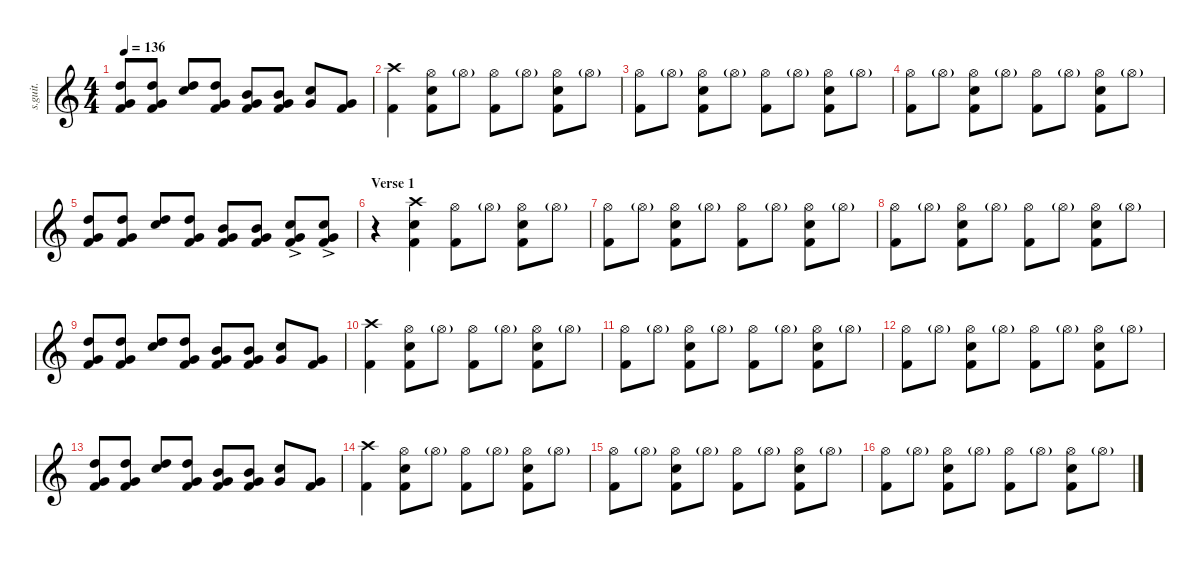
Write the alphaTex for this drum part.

\defaultSystemsLayout 4
\hideDynamics
\bracketExtendMode nobrackets
\track ("Joey Jordison" "s.guit.") {instrument percussion}
\staff {score}
\articulation defaults
\ts (4 4)
\tempo 136
\clef g2
\ks c
("Kick (hit) 2" "High Tom (hit)" "Very Low Tom (hit)").8{lyrics (0 "") lyrics (1 "") lyrics (2 "") lyrics (3 "") lyrics (4 "") dy fff} ("Kick (hit) 2" "High Tom (hit)" "Very Low Tom (hit)").8{lyrics (0 "") lyrics (1 "") lyrics (2 "") lyrics (3 "") lyrics (4 "")} ("Snare (hit) 2" "High Tom (hit)").8{lyrics (0 "") lyrics (1 "") lyrics (2 "") lyrics (3 "") lyrics (4 "")} ("Kick (hit) 2" "High Tom (hit)" "Very Low Tom (hit)").8{lyrics (0 "") lyrics (1 "") lyrics (2 "") lyrics (3 "") lyrics (4 "")} ("Kick (hit) 2" "Mid Tom (hit)" "Very Low Tom (hit)").8{lyrics (0 "") lyrics (1 "") lyrics (2 "") lyrics (3 "") lyrics (4 "")} ("Kick (hit) 2" "Mid Tom (hit)" "Very Low Tom (hit)").8{lyrics (0 "") lyrics (1 "") lyrics (2 "") lyrics (3 "") lyrics (4 "")} ("Snare (hit) 2" "Very Low Tom (hit)").8{lyrics (0 "") lyrics (1 "") lyrics (2 "") lyrics (3 "") lyrics (4 "")} ("Kick (hit) 2" "Very Low Tom (hit)").8{lyrics (0 "") lyrics (1 "") lyrics (2 "") lyrics (3 "") lyrics (4 "")} |
("Crash high (hit)" "Kick (hit) 2").4{lyrics (0 "") lyrics (1 "") lyrics (2 "") lyrics (3 "") lyrics (4 "")} ("Hi-Hat (open)" "Kick (hit) 2" "Snare (hit) 2").8{lyrics (0 "") lyrics (1 "") lyrics (2 "") lyrics (3 "") lyrics (4 "")} "Hi-Hat (open)"{g}.8{lyrics (0 "") lyrics (1 "") lyrics (2 "") lyrics (3 "") lyrics (4 "")} ("Hi-Hat (open)" "Kick (hit) 2").8{lyrics (0 "") lyrics (1 "") lyrics (2 "") lyrics (3 "") lyrics (4 "")} "Hi-Hat (open)"{g}.8{lyrics (0 "") lyrics (1 "") lyrics (2 "") lyrics (3 "") lyrics (4 "")} ("Hi-Hat (open)" "Kick (hit) 2" "Snare (hit) 2").8{lyrics (0 "") lyrics (1 "") lyrics (2 "") lyrics (3 "") lyrics (4 "")} "Hi-Hat (open)"{g}.8{lyrics (0 "") lyrics (1 "") lyrics (2 "") lyrics (3 "") lyrics (4 "")} |
("Hi-Hat (open)" "Kick (hit) 2").8{lyrics (0 "") lyrics (1 "") lyrics (2 "") lyrics (3 "") lyrics (4 "")} "Hi-Hat (open)"{g}.8{lyrics (0 "") lyrics (1 "") lyrics (2 "") lyrics (3 "") lyrics (4 "")} ("Hi-Hat (open)" "Kick (hit) 2" "Snare (hit) 2").8{lyrics (0 "") lyrics (1 "") lyrics (2 "") lyrics (3 "") lyrics (4 "")} "Hi-Hat (open)"{g}.8{lyrics (0 "") lyrics (1 "") lyrics (2 "") lyrics (3 "") lyrics (4 "")} ("Hi-Hat (open)" "Kick (hit) 2").8{lyrics (0 "") lyrics (1 "") lyrics (2 "") lyrics (3 "") lyrics (4 "")} "Hi-Hat (open)"{g}.8{lyrics (0 "") lyrics (1 "") lyrics (2 "") lyrics (3 "") lyrics (4 "")} ("Hi-Hat (open)" "Kick (hit) 2" "Snare (hit) 2").8{lyrics (0 "") lyrics (1 "") lyrics (2 "") lyrics (3 "") lyrics (4 "")} "Hi-Hat (open)"{g}.8{lyrics (0 "") lyrics (1 "") lyrics (2 "") lyrics (3 "") lyrics (4 "")} |
("Hi-Hat (open)" "Kick (hit) 2").8{lyrics (0 "") lyrics (1 "") lyrics (2 "") lyrics (3 "") lyrics (4 "")} "Hi-Hat (open)"{g}.8{lyrics (0 "") lyrics (1 "") lyrics (2 "") lyrics (3 "") lyrics (4 "")} ("Hi-Hat (open)" "Kick (hit) 2" "Snare (hit) 2").8{lyrics (0 "") lyrics (1 "") lyrics (2 "") lyrics (3 "") lyrics (4 "")} "Hi-Hat (open)"{g}.8{lyrics (0 "") lyrics (1 "") lyrics (2 "") lyrics (3 "") lyrics (4 "")} ("Hi-Hat (open)" "Kick (hit) 2").8{lyrics (0 "") lyrics (1 "") lyrics (2 "") lyrics (3 "") lyrics (4 "")} "Hi-Hat (open)"{g}.8{lyrics (0 "") lyrics (1 "") lyrics (2 "") lyrics (3 "") lyrics (4 "")} ("Hi-Hat (open)" "Kick (hit) 2" "Snare (hit) 2").8{lyrics (0 "") lyrics (1 "") lyrics (2 "") lyrics (3 "") lyrics (4 "")} "Hi-Hat (open)"{g}.8{lyrics (0 "") lyrics (1 "") lyrics (2 "") lyrics (3 "") lyrics (4 "")} |
("Kick (hit) 2" "High Tom (hit)" "Very Low Tom (hit)").8{lyrics (0 "") lyrics (1 "") lyrics (2 "") lyrics (3 "") lyrics (4 "")} ("Kick (hit) 2" "High Tom (hit)" "Very Low Tom (hit)").8{lyrics (0 "") lyrics (1 "") lyrics (2 "") lyrics (3 "") lyrics (4 "")} ("Snare (hit) 2" "High Tom (hit)").8{lyrics (0 "") lyrics (1 "") lyrics (2 "") lyrics (3 "") lyrics (4 "")} ("Kick (hit) 2" "High Tom (hit)" "Very Low Tom (hit)").8{lyrics (0 "") lyrics (1 "") lyrics (2 "") lyrics (3 "") lyrics (4 "")} ("Kick (hit) 2" "Mid Tom (hit)" "Very Low Tom (hit)").8{lyrics (0 "") lyrics (1 "") lyrics (2 "") lyrics (3 "") lyrics (4 "")} ("Kick (hit) 2" "Mid Tom (hit)" "Very Low Tom (hit)").8{lyrics (0 "") lyrics (1 "") lyrics (2 "") lyrics (3 "") lyrics (4 "")} ("Snare (hit) 2"{ac} "Very Low Tom (hit)"{ac} "Kick (hit) 2"{ac}).8{lyrics (0 "") lyrics (1 "") lyrics (2 "") lyrics (3 "") lyrics (4 "")} ("Kick (hit) 2"{ac} "Very Low Tom (hit)"{ac} "Snare (hit) 2"{ac}).8{lyrics (0 "") lyrics (1 "") lyrics (2 "") lyrics (3 "") lyrics (4 "")} |
\section ("" "Verse 1")
r.4 ("Snare (hit) 2" "Crash high (hit)" "Kick (hit) 2").4{lyrics (0 "") lyrics (1 "") lyrics (2 "") lyrics (3 "") lyrics (4 "")} ("Hi-Hat (open)" "Kick (hit) 2").8{lyrics (0 "") lyrics (1 "") lyrics (2 "") lyrics (3 "") lyrics (4 "")} "Hi-Hat (open)"{g}.8{lyrics (0 "") lyrics (1 "") lyrics (2 "") lyrics (3 "") lyrics (4 "")} ("Hi-Hat (open)" "Kick (hit) 2" "Snare (hit) 2").8{lyrics (0 "") lyrics (1 "") lyrics (2 "") lyrics (3 "") lyrics (4 "")} "Hi-Hat (open)"{g}.8{lyrics (0 "") lyrics (1 "") lyrics (2 "") lyrics (3 "") lyrics (4 "")} |
("Hi-Hat (open)" "Kick (hit) 2").8{lyrics (0 "") lyrics (1 "") lyrics (2 "") lyrics (3 "") lyrics (4 "")} "Hi-Hat (open)"{g}.8{lyrics (0 "") lyrics (1 "") lyrics (2 "") lyrics (3 "") lyrics (4 "")} ("Hi-Hat (open)" "Kick (hit) 2" "Snare (hit) 2").8{lyrics (0 "") lyrics (1 "") lyrics (2 "") lyrics (3 "") lyrics (4 "")} "Hi-Hat (open)"{g}.8{lyrics (0 "") lyrics (1 "") lyrics (2 "") lyrics (3 "") lyrics (4 "")} ("Hi-Hat (open)" "Kick (hit) 2").8{lyrics (0 "") lyrics (1 "") lyrics (2 "") lyrics (3 "") lyrics (4 "")} "Hi-Hat (open)"{g}.8{lyrics (0 "") lyrics (1 "") lyrics (2 "") lyrics (3 "") lyrics (4 "")} ("Hi-Hat (open)" "Kick (hit) 2" "Snare (hit) 2").8{lyrics (0 "") lyrics (1 "") lyrics (2 "") lyrics (3 "") lyrics (4 "")} "Hi-Hat (open)"{g}.8{lyrics (0 "") lyrics (1 "") lyrics (2 "") lyrics (3 "") lyrics (4 "")} |
("Hi-Hat (open)" "Kick (hit) 2").8{lyrics (0 "") lyrics (1 "") lyrics (2 "") lyrics (3 "") lyrics (4 "")} "Hi-Hat (open)"{g}.8{lyrics (0 "") lyrics (1 "") lyrics (2 "") lyrics (3 "") lyrics (4 "")} ("Hi-Hat (open)" "Kick (hit) 2" "Snare (hit) 2").8{lyrics (0 "") lyrics (1 "") lyrics (2 "") lyrics (3 "") lyrics (4 "")} "Hi-Hat (open)"{g}.8{lyrics (0 "") lyrics (1 "") lyrics (2 "") lyrics (3 "") lyrics (4 "")} ("Hi-Hat (open)" "Kick (hit) 2").8{lyrics (0 "") lyrics (1 "") lyrics (2 "") lyrics (3 "") lyrics (4 "")} "Hi-Hat (open)"{g}.8{lyrics (0 "") lyrics (1 "") lyrics (2 "") lyrics (3 "") lyrics (4 "")} ("Hi-Hat (open)" "Kick (hit) 2" "Snare (hit) 2").8{lyrics (0 "") lyrics (1 "") lyrics (2 "") lyrics (3 "") lyrics (4 "")} "Hi-Hat (open)"{g}.8{lyrics (0 "") lyrics (1 "") lyrics (2 "") lyrics (3 "") lyrics (4 "")} |
("Kick (hit) 2" "High Tom (hit)" "Very Low Tom (hit)").8{lyrics (0 "") lyrics (1 "") lyrics (2 "") lyrics (3 "") lyrics (4 "")} ("Kick (hit) 2" "High Tom (hit)" "Very Low Tom (hit)").8{lyrics (0 "") lyrics (1 "") lyrics (2 "") lyrics (3 "") lyrics (4 "")} ("Snare (hit) 2" "High Tom (hit)").8{lyrics (0 "") lyrics (1 "") lyrics (2 "") lyrics (3 "") lyrics (4 "")} ("Kick (hit) 2" "High Tom (hit)" "Very Low Tom (hit)").8{lyrics (0 "") lyrics (1 "") lyrics (2 "") lyrics (3 "") lyrics (4 "")} ("Kick (hit) 2" "Mid Tom (hit)" "Very Low Tom (hit)").8{lyrics (0 "") lyrics (1 "") lyrics (2 "") lyrics (3 "") lyrics (4 "")} ("Kick (hit) 2" "Mid Tom (hit)" "Very Low Tom (hit)").8{lyrics (0 "") lyrics (1 "") lyrics (2 "") lyrics (3 "") lyrics (4 "")} ("Snare (hit) 2" "Very Low Tom (hit)").8{lyrics (0 "") lyrics (1 "") lyrics (2 "") lyrics (3 "") lyrics (4 "")} ("Kick (hit) 2" "Very Low Tom (hit)").8{lyrics (0 "") lyrics (1 "") lyrics (2 "") lyrics (3 "") lyrics (4 "")} |
("Crash high (hit)" "Kick (hit) 2").4{lyrics (0 "") lyrics (1 "") lyrics (2 "") lyrics (3 "") lyrics (4 "")} ("Hi-Hat (open)" "Kick (hit) 2" "Snare (hit) 2").8{lyrics (0 "") lyrics (1 "") lyrics (2 "") lyrics (3 "") lyrics (4 "")} "Hi-Hat (open)"{g}.8{lyrics (0 "") lyrics (1 "") lyrics (2 "") lyrics (3 "") lyrics (4 "")} ("Hi-Hat (open)" "Kick (hit) 2").8{lyrics (0 "") lyrics (1 "") lyrics (2 "") lyrics (3 "") lyrics (4 "")} "Hi-Hat (open)"{g}.8{lyrics (0 "") lyrics (1 "") lyrics (2 "") lyrics (3 "") lyrics (4 "")} ("Hi-Hat (open)" "Kick (hit) 2" "Snare (hit) 2").8{lyrics (0 "") lyrics (1 "") lyrics (2 "") lyrics (3 "") lyrics (4 "")} "Hi-Hat (open)"{g}.8{lyrics (0 "") lyrics (1 "") lyrics (2 "") lyrics (3 "") lyrics (4 "")} |
("Hi-Hat (open)" "Kick (hit) 2").8{lyrics (0 "") lyrics (1 "") lyrics (2 "") lyrics (3 "") lyrics (4 "")} "Hi-Hat (open)"{g}.8{lyrics (0 "") lyrics (1 "") lyrics (2 "") lyrics (3 "") lyrics (4 "")} ("Hi-Hat (open)" "Kick (hit) 2" "Snare (hit) 2").8{lyrics (0 "") lyrics (1 "") lyrics (2 "") lyrics (3 "") lyrics (4 "")} "Hi-Hat (open)"{g}.8{lyrics (0 "") lyrics (1 "") lyrics (2 "") lyrics (3 "") lyrics (4 "")} ("Hi-Hat (open)" "Kick (hit) 2").8{lyrics (0 "") lyrics (1 "") lyrics (2 "") lyrics (3 "") lyrics (4 "")} "Hi-Hat (open)"{g}.8{lyrics (0 "") lyrics (1 "") lyrics (2 "") lyrics (3 "") lyrics (4 "")} ("Hi-Hat (open)" "Kick (hit) 2" "Snare (hit) 2").8{lyrics (0 "") lyrics (1 "") lyrics (2 "") lyrics (3 "") lyrics (4 "")} "Hi-Hat (open)"{g}.8{lyrics (0 "") lyrics (1 "") lyrics (2 "") lyrics (3 "") lyrics (4 "")} |
("Hi-Hat (open)" "Kick (hit) 2").8{lyrics (0 "") lyrics (1 "") lyrics (2 "") lyrics (3 "") lyrics (4 "")} "Hi-Hat (open)"{g}.8{lyrics (0 "") lyrics (1 "") lyrics (2 "") lyrics (3 "") lyrics (4 "")} ("Hi-Hat (open)" "Kick (hit) 2" "Snare (hit) 2").8{lyrics (0 "") lyrics (1 "") lyrics (2 "") lyrics (3 "") lyrics (4 "")} "Hi-Hat (open)"{g}.8{lyrics (0 "") lyrics (1 "") lyrics (2 "") lyrics (3 "") lyrics (4 "")} ("Hi-Hat (open)" "Kick (hit) 2").8{lyrics (0 "") lyrics (1 "") lyrics (2 "") lyrics (3 "") lyrics (4 "")} "Hi-Hat (open)"{g}.8{lyrics (0 "") lyrics (1 "") lyrics (2 "") lyrics (3 "") lyrics (4 "")} ("Hi-Hat (open)" "Kick (hit) 2" "Snare (hit) 2").8{lyrics (0 "") lyrics (1 "") lyrics (2 "") lyrics (3 "") lyrics (4 "")} "Hi-Hat (open)"{g}.8{lyrics (0 "") lyrics (1 "") lyrics (2 "") lyrics (3 "") lyrics (4 "")} |
("Kick (hit) 2" "High Tom (hit)" "Very Low Tom (hit)").8{lyrics (0 "") lyrics (1 "") lyrics (2 "") lyrics (3 "") lyrics (4 "")} ("Kick (hit) 2" "High Tom (hit)" "Very Low Tom (hit)").8{lyrics (0 "") lyrics (1 "") lyrics (2 "") lyrics (3 "") lyrics (4 "")} ("Snare (hit) 2" "High Tom (hit)").8{lyrics (0 "") lyrics (1 "") lyrics (2 "") lyrics (3 "") lyrics (4 "")} ("Kick (hit) 2" "High Tom (hit)" "Very Low Tom (hit)").8{lyrics (0 "") lyrics (1 "") lyrics (2 "") lyrics (3 "") lyrics (4 "")} ("Kick (hit) 2" "Mid Tom (hit)" "Very Low Tom (hit)").8{lyrics (0 "") lyrics (1 "") lyrics (2 "") lyrics (3 "") lyrics (4 "")} ("Kick (hit) 2" "Mid Tom (hit)" "Very Low Tom (hit)").8{lyrics (0 "") lyrics (1 "") lyrics (2 "") lyrics (3 "") lyrics (4 "")} ("Snare (hit) 2" "Very Low Tom (hit)").8{lyrics (0 "") lyrics (1 "") lyrics (2 "") lyrics (3 "") lyrics (4 "")} ("Kick (hit) 2" "Very Low Tom (hit)").8{lyrics (0 "") lyrics (1 "") lyrics (2 "") lyrics (3 "") lyrics (4 "")} |
("Crash high (hit)" "Kick (hit) 2").4{lyrics (0 "") lyrics (1 "") lyrics (2 "") lyrics (3 "") lyrics (4 "")} ("Hi-Hat (open)" "Kick (hit) 2" "Snare (hit) 2").8{lyrics (0 "") lyrics (1 "") lyrics (2 "") lyrics (3 "") lyrics (4 "")} "Hi-Hat (open)"{g}.8{lyrics (0 "") lyrics (1 "") lyrics (2 "") lyrics (3 "") lyrics (4 "")} ("Hi-Hat (open)" "Kick (hit) 2").8{lyrics (0 "") lyrics (1 "") lyrics (2 "") lyrics (3 "") lyrics (4 "")} "Hi-Hat (open)"{g}.8{lyrics (0 "") lyrics (1 "") lyrics (2 "") lyrics (3 "") lyrics (4 "")} ("Hi-Hat (open)" "Kick (hit) 2" "Snare (hit) 2").8{lyrics (0 "") lyrics (1 "") lyrics (2 "") lyrics (3 "") lyrics (4 "")} "Hi-Hat (open)"{g}.8{lyrics (0 "") lyrics (1 "") lyrics (2 "") lyrics (3 "") lyrics (4 "")} |
("Hi-Hat (open)" "Kick (hit) 2").8{lyrics (0 "") lyrics (1 "") lyrics (2 "") lyrics (3 "") lyrics (4 "")} "Hi-Hat (open)"{g}.8{lyrics (0 "") lyrics (1 "") lyrics (2 "") lyrics (3 "") lyrics (4 "")} ("Hi-Hat (open)" "Kick (hit) 2" "Snare (hit) 2").8{lyrics (0 "") lyrics (1 "") lyrics (2 "") lyrics (3 "") lyrics (4 "")} "Hi-Hat (open)"{g}.8{lyrics (0 "") lyrics (1 "") lyrics (2 "") lyrics (3 "") lyrics (4 "")} ("Hi-Hat (open)" "Kick (hit) 2").8{lyrics (0 "") lyrics (1 "") lyrics (2 "") lyrics (3 "") lyrics (4 "")} "Hi-Hat (open)"{g}.8{lyrics (0 "") lyrics (1 "") lyrics (2 "") lyrics (3 "") lyrics (4 "")} ("Hi-Hat (open)" "Kick (hit) 2" "Snare (hit) 2").8{lyrics (0 "") lyrics (1 "") lyrics (2 "") lyrics (3 "") lyrics (4 "")} "Hi-Hat (open)"{g}.8{lyrics (0 "") lyrics (1 "") lyrics (2 "") lyrics (3 "") lyrics (4 "")} |
("Hi-Hat (open)" "Kick (hit) 2").8{lyrics (0 "") lyrics (1 "") lyrics (2 "") lyrics (3 "") lyrics (4 "")} "Hi-Hat (open)"{g}.8{lyrics (0 "") lyrics (1 "") lyrics (2 "") lyrics (3 "") lyrics (4 "")} ("Hi-Hat (open)" "Kick (hit) 2" "Snare (hit) 2").8{lyrics (0 "") lyrics (1 "") lyrics (2 "") lyrics (3 "") lyrics (4 "")} "Hi-Hat (open)"{g}.8{lyrics (0 "") lyrics (1 "") lyrics (2 "") lyrics (3 "") lyrics (4 "")} ("Hi-Hat (open)" "Kick (hit) 2").8{lyrics (0 "") lyrics (1 "") lyrics (2 "") lyrics (3 "") lyrics (4 "")} "Hi-Hat (open)"{g}.8{lyrics (0 "") lyrics (1 "") lyrics (2 "") lyrics (3 "") lyrics (4 "")} ("Hi-Hat (open)" "Kick (hit) 2" "Snare (hit) 2").8{lyrics (0 "") lyrics (1 "") lyrics (2 "") lyrics (3 "") lyrics (4 "")} "Hi-Hat (open)"{g}.8{lyrics (0 "") lyrics (1 "") lyrics (2 "") lyrics (3 "") lyrics (4 "")}
